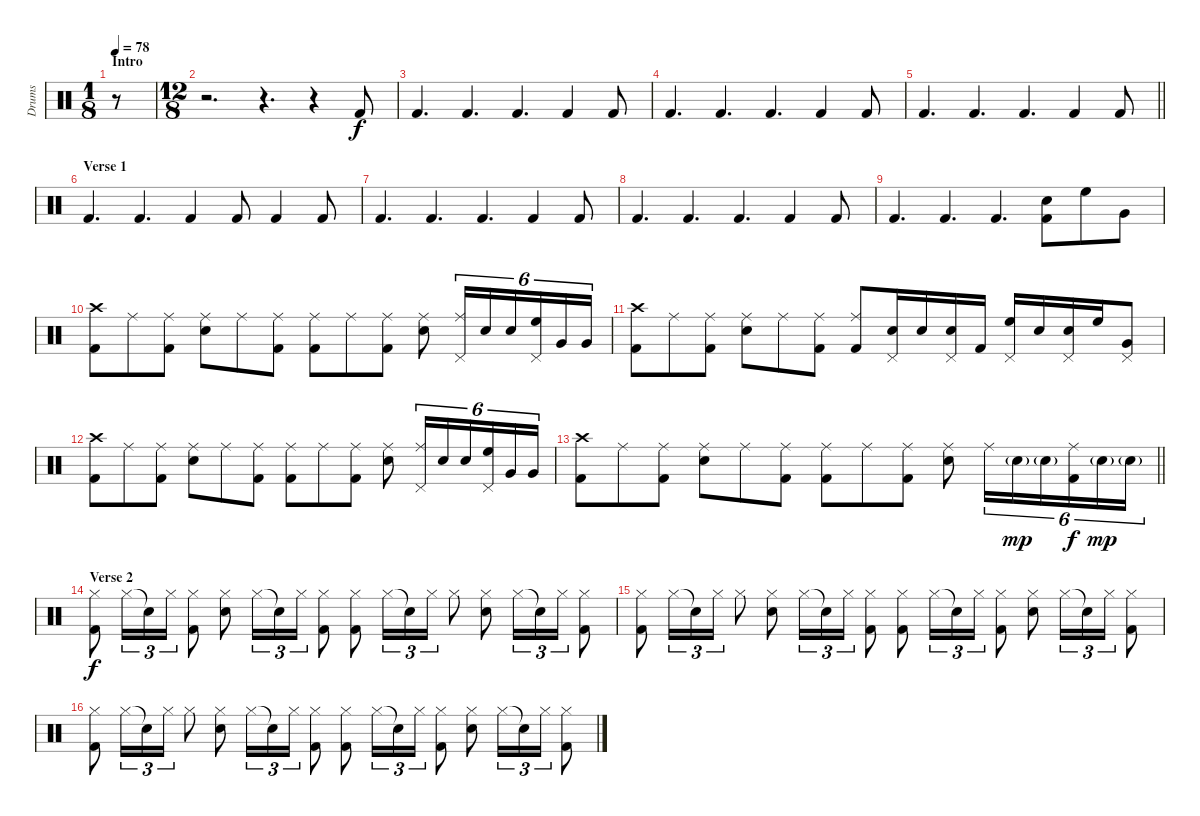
\track ("Drums" "Drums") {instrument percussion}
\staff {score}
\articulation defaults
\ts (1 8)
\section ("" "Intro")
\tempo 78
\clef neutral
\ks c
r.8{dy f volume 9} |
\ts (12 8)
r.2{d} r.4{d} r.4 "Kick (hit) 2".8 |
"Kick (hit) 2".4{d} "Kick (hit) 2".4{d} "Kick (hit) 2".4{d} "Kick (hit) 2".4 "Kick (hit) 2".8 |
"Kick (hit) 2".4{d} "Kick (hit) 2".4{d} "Kick (hit) 2".4{d} "Kick (hit) 2".4 "Kick (hit) 2".8 |
\barLineRight lightlight "Kick (hit) 2".4{d} "Kick (hit) 2".4{d} "Kick (hit) 2".4{d} "Kick (hit) 2".4 "Kick (hit) 2".8
|
\section ("" "Verse 1")
"Kick (hit) 2".4{d} "Kick (hit) 2".4{d} "Kick (hit) 2".4 "Kick (hit) 2".8 "Kick (hit) 2".4 "Kick (hit) 2".8 |
"Kick (hit) 2".4{d} "Kick (hit) 2".4{d} "Kick (hit) 2".4{d} "Kick (hit) 2".4 "Kick (hit) 2".8 |
"Kick (hit) 2".4{d} "Kick (hit) 2".4{d} "Kick (hit) 2".4{d} "Kick (hit) 2".4 "Kick (hit) 2".8 |
"Kick (hit) 2".4{d} "Kick (hit) 2".4{d} "Kick (hit) 2".4{d} ("Snare (hit) 2" "Kick (hit) 2").8 "High Floor Tom (hit)".8 "Very Low Tom (hit)".8 |
("Crash high (hit)" "Kick (hit) 2").8 "Ride (middle)".8 ("Ride (middle)" "Kick (hit) 2").8 ("Ride (middle)" "Snare (hit) 2").8 "Ride (middle)".8 ("Ride (middle)" "Kick (hit) 2").8 ("Ride (middle)" "Kick (hit) 2").8 "Ride (middle)".8 ("Ride (middle)" "Kick (hit) 2").8 ("Ride (middle)" "Snare (hit) 2").8 ("Pedal Hi-Hat (hit)" "Ride (middle)").16{tu (6 4)} "Snare (hit) 2".16{tu (6 4)} "Snare (hit) 2".16{tu (6 4)} ("Pedal Hi-Hat (hit)" "High Floor Tom (hit)").16{tu (6 4)} "Very Low Tom (hit)".16{tu (6 4)} "Very Low Tom (hit)".16{tu (6 4)} |
("Crash high (hit)" "Kick (hit) 2").8 "Ride (middle)".8 ("Ride (middle)" "Kick (hit) 2").8 ("Ride (middle)" "Snare (hit) 2").8 "Ride (middle)".8 ("Ride (middle)" "Kick (hit) 2").8 ("Ride (middle)" "Kick (hit) 2").8 ("Pedal Hi-Hat (hit)" "Snare (hit) 2").16 "Snare (hit) 2".16 ("Pedal Hi-Hat (hit)" "Snare (hit) 2").16 "Kick (hit) 2".16 ("Pedal Hi-Hat (hit)" "High Floor Tom (hit)").16 "Snare (hit) 2".16 ("Pedal Hi-Hat (hit)" "Snare (hit) 2").16 "High Floor Tom (hit)".16 ("Pedal Hi-Hat (hit)" "Very Low Tom (hit)").8 |
("Crash high (hit)" "Kick (hit) 2").8 "Ride (middle)".8 ("Ride (middle)" "Kick (hit) 2").8 ("Ride (middle)" "Snare (hit) 2").8 "Ride (middle)".8 ("Ride (middle)" "Kick (hit) 2").8 ("Ride (middle)" "Kick (hit) 2").8 "Ride (middle)".8 ("Ride (middle)" "Kick (hit) 2").8 ("Ride (middle)" "Snare (hit) 2").8 ("Pedal Hi-Hat (hit)" "Ride (middle)").16{tu (6 4)} "Snare (hit) 2".16{tu (6 4)} "Snare (hit) 2".16{tu (6 4)} ("Pedal Hi-Hat (hit)" "High Floor Tom (hit)").16{tu (6 4)} "Very Low Tom (hit)".16{tu (6 4)} "Very Low Tom (hit)".16{tu (6 4)} |
\barLineRight lightlight
("Crash high (hit)" "Kick (hit) 2").8 "Ride (middle)".8 ("Ride (middle)" "Kick (hit) 2").8 ("Ride (middle)" "Snare (hit) 2").8 "Ride (middle)".8 ("Ride (middle)" "Kick (hit) 2").8 ("Ride (middle)" "Kick (hit) 2").8 "Ride (middle)".8 ("Ride (middle)" "Kick (hit) 2").8 ("Ride (middle)" "Snare (hit) 2").8 "Ride (middle)".16{tu (6 4)} "Snare (hit) 2"{g}.16{tu (6 4) dy mp} "Snare (hit) 2"{g}.16{tu (6 4)} ("Ride (middle)" "Kick (hit) 2").16{tu (6 4) dy f} "Snare (hit) 2"{g}.16{tu (6 4) dy mp} "Snare (hit) 2"{g}.16{tu (6 4)} |
\section ("" "Verse 2")
("Hi-Hat (closed)" "Kick (hit) 2").8{dy f} "Hi-Hat (closed)".16{tu (3 2)} "Snare (hit)"{t}.16{tu (3 2)} "Hi-Hat (closed)".16{tu (3 2)} ("Hi-Hat (closed)" "Kick (hit) 2").8 ("Hi-Hat (closed)" "Snare (hit) 2").8 "Hi-Hat (closed)".16{tu (3 2)} "Snare (hit)"{t}.16{tu (3 2)} "Hi-Hat (closed)".16{tu (3 2)} ("Hi-Hat (closed)" "Kick (hit) 2").8 ("Hi-Hat (closed)" "Kick (hit) 2").8 "Hi-Hat (closed)".16{tu (3 2)} "Snare (hit)"{t}.16{tu (3 2)} "Hi-Hat (closed)".16{tu (3 2)} "Hi-Hat (closed)".8 ("Hi-Hat (closed)" "Snare (hit) 2").8 "Hi-Hat (closed)".16{tu (3 2)} "Snare (hit)"{t}.16{tu (3 2)} "Hi-Hat (closed)".16{tu (3 2)} ("Hi-Hat (closed)" "Kick (hit) 2").8 |
("Hi-Hat (closed)" "Kick (hit) 2").8 "Hi-Hat (closed)".16{tu (3 2)} "Snare (hit)"{t}.16{tu (3 2)} "Hi-Hat (closed)".16{tu (3 2)} "Hi-Hat (closed)".8 ("Hi-Hat (closed)" "Snare (hit) 2").8 "Hi-Hat (closed)".16{tu (3 2)} "Snare (hit)"{t}.16{tu (3 2)} "Hi-Hat (closed)".16{tu (3 2)} ("Hi-Hat (closed)" "Kick (hit) 2").8 ("Hi-Hat (closed)" "Kick (hit) 2").8 "Hi-Hat (closed)".16{tu (3 2)} "Snare (hit)"{t}.16{tu (3 2)} "Hi-Hat (closed)".16{tu (3 2)} ("Hi-Hat (closed)" "Kick (hit) 2").8 ("Hi-Hat (closed)" "Snare (hit) 2").8 "Hi-Hat (closed)".16{tu (3 2)} "Snare (hit)"{t}.16{tu (3 2)} "Hi-Hat (closed)".16{tu (3 2)} ("Hi-Hat (closed)" "Kick (hit) 2").8 |
("Hi-Hat (closed)" "Kick (hit) 2").8 "Hi-Hat (closed)".16{tu (3 2)} "Snare (hit)"{t}.16{tu (3 2)} "Hi-Hat (closed)".16{tu (3 2)} "Hi-Hat (closed)".8 ("Hi-Hat (closed)" "Snare (hit) 2").8 "Hi-Hat (closed)".16{tu (3 2)} "Snare (hit)"{t}.16{tu (3 2)} "Hi-Hat (closed)".16{tu (3 2)} ("Hi-Hat (closed)" "Kick (hit) 2").8 ("Hi-Hat (closed)" "Kick (hit) 2").8 "Hi-Hat (closed)".16{tu (3 2)} "Snare (hit)"{t}.16{tu (3 2)} "Hi-Hat (closed)".16{tu (3 2)} ("Hi-Hat (closed)" "Kick (hit) 2").8 ("Hi-Hat (closed)" "Snare (hit) 2").8 "Hi-Hat (closed)".16{tu (3 2)} "Snare (hit)"{t}.16{tu (3 2)} "Hi-Hat (closed)".16{tu (3 2)} ("Hi-Hat (closed)" "Kick (hit) 2").8
